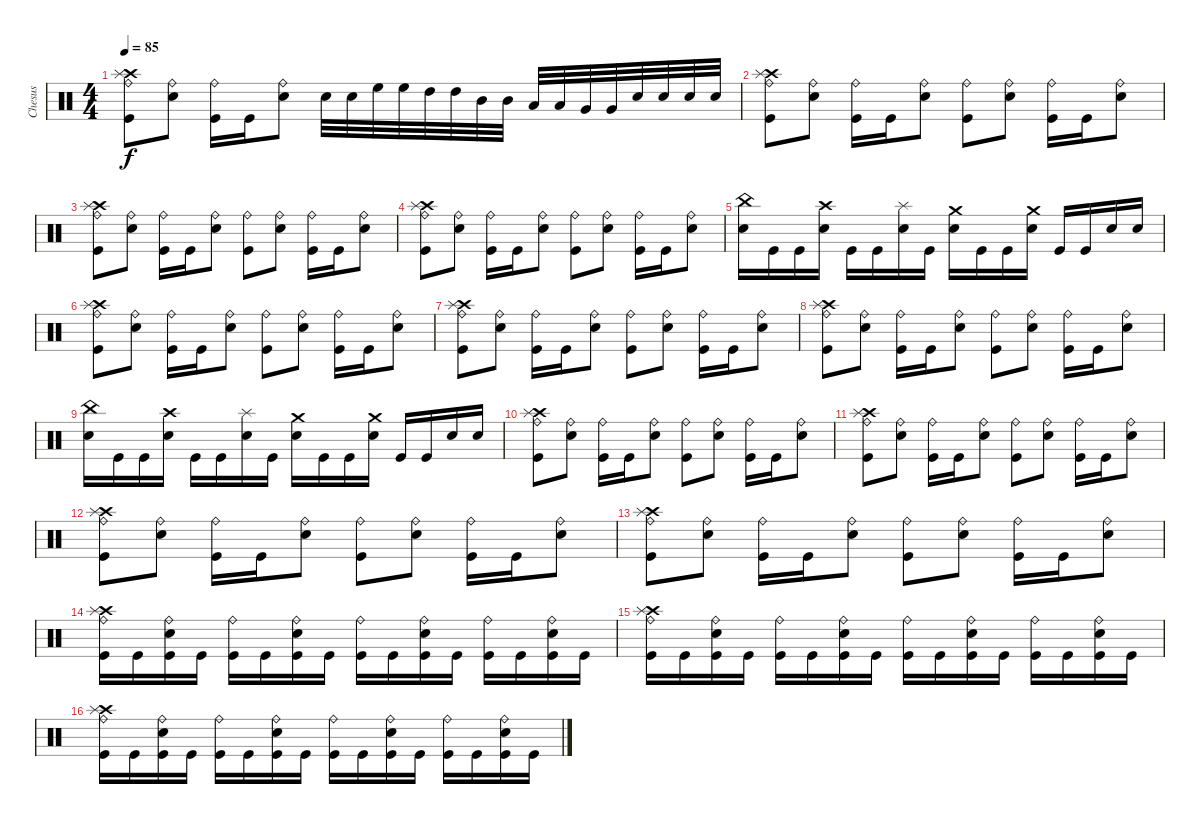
\track ("Chesus" "Chesus") {instrument percussion}
\staff {score}
\articulation defaults
\ts (4 4)
\tempo 85
\clef neutral
\ks c
("Crash high (hit)" "Splash (hit)" "Ride (bell)" "Kick (hit)").8{dy f} ("Ride (bell)" "Snare (hit) 2").8 ("Ride (bell)" "Kick (hit)").16 "Kick (hit)".16 ("Ride (bell)" "Snare (hit) 2").8 "Snare (hit) 2".32 "Snare (hit) 2".32 "High Floor Tom (hit)".32 "High Floor Tom (hit)".32 "High Tom (hit)".32 "High Tom (hit)".32 "Mid Tom (hit)".32 "Mid Tom (hit)".32 "Low Tom (hit)".32 "Low Tom (hit)".32 "Very Low Tom (hit)".32 "Very Low Tom (hit)".32 "Snare (hit) 2".32 "Snare (hit) 2".32 "Snare (hit) 2".32 "Snare (hit) 2".32 |
("Crash high (hit)" "Splash (hit)" "Ride (bell)" "Kick (hit)").8 ("Ride (bell)" "Snare (hit) 2").8 ("Ride (bell)" "Kick (hit)").16 "Kick (hit)".16 ("Ride (bell)" "Snare (hit) 2").8 ("Ride (bell)" "Kick (hit)").8 ("Ride (bell)" "Snare (hit) 2").8 ("Ride (bell)" "Kick (hit)").16 "Kick (hit)".16 ("Ride (bell)" "Snare (hit) 2").8 |
("Crash high (hit)" "Splash (hit)" "Ride (bell)" "Kick (hit)").8 ("Ride (bell)" "Snare (hit) 2").8 ("Ride (bell)" "Kick (hit)").16 "Kick (hit)".16 ("Ride (bell)" "Snare (hit) 2").8 ("Ride (bell)" "Kick (hit)").8 ("Ride (bell)" "Snare (hit) 2").8 ("Ride (bell)" "Kick (hit)").16 "Kick (hit)".16 ("Ride (bell)" "Snare (hit) 2").8 |
("Crash high (hit)" "Splash (hit)" "Ride (bell)" "Kick (hit)").8 ("Ride (bell)" "Snare (hit) 2").8 ("Ride (bell)" "Kick (hit)").16 "Kick (hit)".16 ("Ride (bell)" "Snare (hit) 2").8 ("Ride (bell)" "Kick (hit)").8 ("Ride (bell)" "Snare (hit) 2").8 ("Ride (bell)" "Kick (hit)").16 "Kick (hit)".16 ("Ride (bell)" "Snare (hit) 2").8 |
("China (hit)" "Snare (hit) 2").16 "Kick (hit)".16 "Kick (hit)".16 ("Crash high (hit)" "Snare (hit) 2").16 "Kick (hit)".16 "Kick (hit)".16 ("Splash (hit)" "Snare (hit) 2").16 "Kick (hit)".16 ("Crash medium (hit)" "Snare (hit) 2").16 "Kick (hit)".16 "Kick (hit)".16 ("Crash medium (hit)" "Snare (hit) 2").16 "Kick (hit)".16 "Kick (hit)".16 "Snare (hit) 2".16 "Snare (hit) 2".16 |
("Crash high (hit)" "Splash (hit)" "Ride (bell)" "Kick (hit)").8 ("Ride (bell)" "Snare (hit) 2").8 ("Ride (bell)" "Kick (hit)").16 "Kick (hit)".16 ("Ride (bell)" "Snare (hit) 2").8 ("Ride (bell)" "Kick (hit)").8 ("Ride (bell)" "Snare (hit) 2").8 ("Ride (bell)" "Kick (hit)").16 "Kick (hit)".16 ("Ride (bell)" "Snare (hit) 2").8 |
("Crash high (hit)" "Splash (hit)" "Ride (bell)" "Kick (hit)").8 ("Ride (bell)" "Snare (hit) 2").8 ("Ride (bell)" "Kick (hit)").16 "Kick (hit)".16 ("Ride (bell)" "Snare (hit) 2").8 ("Ride (bell)" "Kick (hit)").8 ("Ride (bell)" "Snare (hit) 2").8 ("Ride (bell)" "Kick (hit)").16 "Kick (hit)".16 ("Ride (bell)" "Snare (hit) 2").8 |
("Crash high (hit)" "Splash (hit)" "Ride (bell)" "Kick (hit)").8 ("Ride (bell)" "Snare (hit) 2").8 ("Ride (bell)" "Kick (hit)").16 "Kick (hit)".16 ("Ride (bell)" "Snare (hit) 2").8 ("Ride (bell)" "Kick (hit)").8 ("Ride (bell)" "Snare (hit) 2").8 ("Ride (bell)" "Kick (hit)").16 "Kick (hit)".16 ("Ride (bell)" "Snare (hit) 2").8 |
("China (hit)" "Snare (hit) 2").16 "Kick (hit)".16 "Kick (hit)".16 ("Crash high (hit)" "Snare (hit) 2").16 "Kick (hit)".16 "Kick (hit)".16 ("Splash (hit)" "Snare (hit) 2").16 "Kick (hit)".16 ("Crash medium (hit)" "Snare (hit) 2").16 "Kick (hit)".16 "Kick (hit)".16 ("Crash medium (hit)" "Snare (hit) 2").16 "Kick (hit)".16 "Kick (hit)".16 "Snare (hit) 2".16 "Snare (hit) 2".16 |
("Crash high (hit)" "Splash (hit)" "Ride (bell)" "Kick (hit)").8 ("Ride (bell)" "Snare (hit) 2").8 ("Ride (bell)" "Kick (hit)").16 "Kick (hit)".16 ("Ride (bell)" "Snare (hit) 2").8 ("Ride (bell)" "Kick (hit)").8 ("Ride (bell)" "Snare (hit) 2").8 ("Ride (bell)" "Kick (hit)").16 "Kick (hit)".16 ("Ride (bell)" "Snare (hit) 2").8 |
("Crash high (hit)" "Splash (hit)" "Ride (bell)" "Kick (hit)").8 ("Ride (bell)" "Snare (hit) 2").8 ("Ride (bell)" "Kick (hit)").16 "Kick (hit)".16 ("Ride (bell)" "Snare (hit) 2").8 ("Ride (bell)" "Kick (hit)").8 ("Ride (bell)" "Snare (hit) 2").8 ("Ride (bell)" "Kick (hit)").16 "Kick (hit)".16 ("Ride (bell)" "Snare (hit) 2").8 |
("Crash high (hit)" "Splash (hit)" "Ride (bell)" "Kick (hit)").8 ("Ride (bell)" "Snare (hit) 2").8 ("Ride (bell)" "Kick (hit)").16 "Kick (hit)".16 ("Ride (bell)" "Snare (hit) 2").8 ("Ride (bell)" "Kick (hit)").8 ("Ride (bell)" "Snare (hit) 2").8 ("Ride (bell)" "Kick (hit)").16 "Kick (hit)".16 ("Ride (bell)" "Snare (hit) 2").8 |
("Crash high (hit)" "Splash (hit)" "Ride (bell)" "Kick (hit)").8 ("Ride (bell)" "Snare (hit) 2").8 ("Ride (bell)" "Kick (hit)").16 "Kick (hit)".16 ("Ride (bell)" "Snare (hit) 2").8 ("Ride (bell)" "Kick (hit)").8 ("Ride (bell)" "Snare (hit) 2").8 ("Ride (bell)" "Kick (hit)").16 "Kick (hit)".16 ("Ride (bell)" "Snare (hit) 2").8 |
("Crash high (hit)" "Splash (hit)" "Ride (bell)" "Kick (hit)").16 "Kick (hit)".16 ("Ride (bell)" "Snare (hit) 2" "Kick (hit)").16 "Kick (hit)".16 ("Ride (bell)" "Kick (hit)").16 "Kick (hit)".16 ("Ride (bell)" "Snare (hit) 2" "Kick (hit)").16 "Kick (hit)".16 ("Ride (bell)" "Kick (hit)").16 "Kick (hit)".16 ("Ride (bell)" "Snare (hit) 2" "Kick (hit)").16 "Kick (hit)".16 ("Ride (bell)" "Kick (hit)").16 "Kick (hit)".16 ("Ride (bell)" "Snare (hit) 2" "Kick (hit)").16 "Kick (hit)".16 |
("Crash high (hit)" "Splash (hit)" "Ride (bell)" "Kick (hit)").16 "Kick (hit)".16 ("Ride (bell)" "Snare (hit) 2" "Kick (hit)").16 "Kick (hit)".16 ("Ride (bell)" "Kick (hit)").16 "Kick (hit)".16 ("Ride (bell)" "Snare (hit) 2" "Kick (hit)").16 "Kick (hit)".16 ("Ride (bell)" "Kick (hit)").16 "Kick (hit)".16 ("Ride (bell)" "Snare (hit) 2" "Kick (hit)").16 "Kick (hit)".16 ("Ride (bell)" "Kick (hit)").16 "Kick (hit)".16 ("Ride (bell)" "Snare (hit) 2" "Kick (hit)").16 "Kick (hit)".16 |
("Crash high (hit)" "Splash (hit)" "Ride (bell)" "Kick (hit)").16 "Kick (hit)".16 ("Ride (bell)" "Snare (hit) 2" "Kick (hit)").16 "Kick (hit)".16 ("Ride (bell)" "Kick (hit)").16 "Kick (hit)".16 ("Ride (bell)" "Snare (hit) 2" "Kick (hit)").16 "Kick (hit)".16 ("Ride (bell)" "Kick (hit)").16 "Kick (hit)".16 ("Ride (bell)" "Snare (hit) 2" "Kick (hit)").16 "Kick (hit)".16 ("Ride (bell)" "Kick (hit)").16 "Kick (hit)".16 ("Ride (bell)" "Snare (hit) 2" "Kick (hit)").16 "Kick (hit)".16
